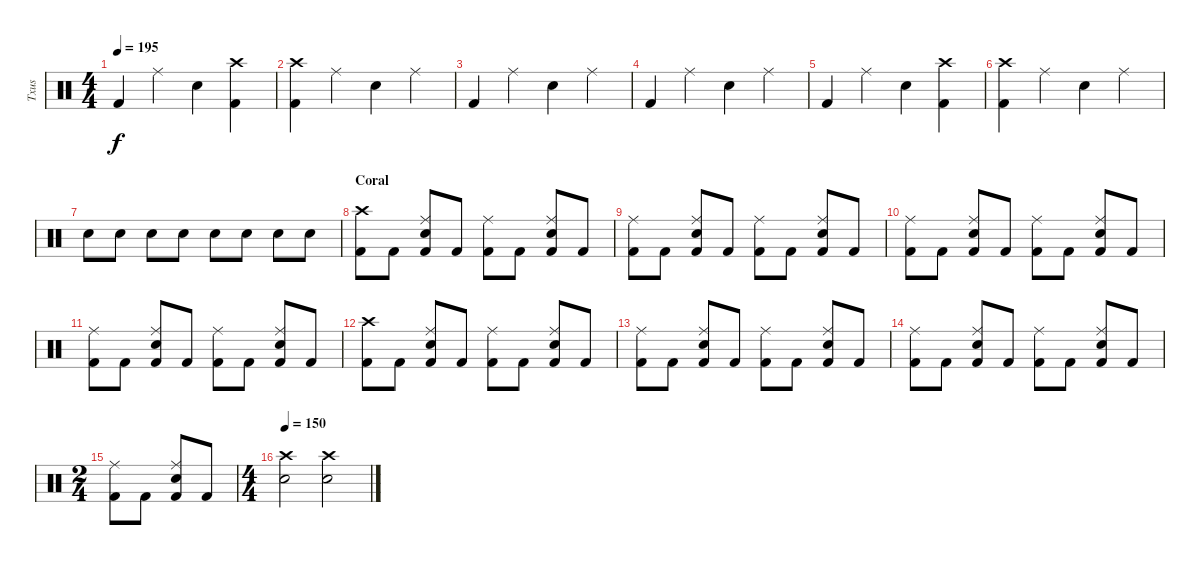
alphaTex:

\track ("Txus" "Txus") {instrument percussion}
\staff {score}
\articulation defaults
\ts (4 4)
\tempo 195
\clef neutral
\ks c "Kick (hit) 2".4{dy f} "Ride (middle)".4 "Electric Snare (hit)".4
("Kick (hit) 2" "Crash high (hit)").4 |
("Kick (hit) 2" "Crash high (hit)").4 "Ride (middle)".4 "Electric Snare (hit)".4 "Ride (middle)".4 |
"Kick (hit) 2".4 "Ride (middle)".4 "Electric Snare (hit)".4 "Ride (middle)".4 |
"Kick (hit) 2".4 "Ride (middle)".4 "Electric Snare (hit)".4 "Ride (middle)".4 |
"Kick (hit) 2".4 "Ride (middle)".4 "Electric Snare (hit)".4 ("Kick (hit) 2" "Crash high (hit)").4 |
("Kick (hit) 2" "Crash high (hit)").4 "Ride (middle)".4 "Electric Snare (hit)".4 "Ride (middle)".4 |
"Electric Snare (hit)".8 "Electric Snare (hit)".8 "Electric Snare (hit)".8 "Electric Snare (hit)".8 "Electric Snare (hit)".8 "Electric Snare (hit)".8 "Electric Snare (hit)".8 "Electric Snare (hit)".8 |
\section ("" "Coral")
("Kick (hit) 2" "Crash high (hit)").8 "Kick (hit) 2".8 ("Kick (hit) 2" "Ride (middle)" "Electric Snare (hit)").8 "Kick (hit) 2".8 ("Kick (hit) 2" "Ride (middle)").8 "Kick (hit) 2".8 ("Kick (hit) 2" "Ride (middle)" "Electric Snare (hit)").8 "Kick (hit) 2".8 |
("Kick (hit) 2" "Ride (middle)").8 "Kick (hit) 2".8 ("Kick (hit) 2" "Ride (middle)" "Electric Snare (hit)").8 "Kick (hit) 2".8 ("Kick (hit) 2" "Ride (middle)").8 "Kick (hit) 2".8 ("Kick (hit) 2" "Ride (middle)" "Electric Snare (hit)").8 "Kick (hit) 2".8 |
("Kick (hit) 2" "Ride (middle)").8 "Kick (hit) 2".8 ("Kick (hit) 2" "Ride (middle)" "Electric Snare (hit)").8 "Kick (hit) 2".8 ("Kick (hit) 2" "Ride (middle)").8 "Kick (hit) 2".8 ("Kick (hit) 2" "Ride (middle)" "Electric Snare (hit)").8 "Kick (hit) 2".8 |
("Kick (hit) 2" "Ride (middle)").8 "Kick (hit) 2".8 ("Kick (hit) 2" "Ride (middle)" "Electric Snare (hit)").8 "Kick (hit) 2".8 ("Kick (hit) 2" "Ride (middle)").8 "Kick (hit) 2".8 ("Kick (hit) 2" "Ride (middle)" "Electric Snare (hit)").8 "Kick (hit) 2".8 |
("Kick (hit) 2" "Crash high (hit)").8 "Kick (hit) 2".8 ("Kick (hit) 2" "Ride (middle)" "Electric Snare (hit)").8 "Kick (hit) 2".8 ("Kick (hit) 2" "Ride (middle)").8 "Kick (hit) 2".8 ("Kick (hit) 2" "Ride (middle)" "Electric Snare (hit)").8 "Kick (hit) 2".8 |
("Kick (hit) 2" "Ride (middle)").8 "Kick (hit) 2".8 ("Kick (hit) 2" "Ride (middle)" "Electric Snare (hit)").8 "Kick (hit) 2".8 ("Kick (hit) 2" "Ride (middle)").8 "Kick (hit) 2".8 ("Kick (hit) 2" "Ride (middle)" "Electric Snare (hit)").8 "Kick (hit) 2".8 |
("Kick (hit) 2" "Ride (middle)").8 "Kick (hit) 2".8 ("Kick (hit) 2" "Ride (middle)" "Electric Snare (hit)").8 "Kick (hit) 2".8 ("Kick (hit) 2" "Ride (middle)").8 "Kick (hit) 2".8 ("Kick (hit) 2" "Ride (middle)" "Electric Snare (hit)").8 "Kick (hit) 2".8 |
\ts (2 4)
("Kick (hit) 2" "Ride (middle)").8 "Kick (hit) 2".8 ("Kick (hit) 2" "Ride (middle)" "Electric Snare (hit)").8 "Kick (hit) 2".8 |
\ts (4 4)
\tempo 150
("Electric Snare (hit)" "Crash high (hit)").2 ("Electric Snare (hit)" "Crash high (hit)").2
